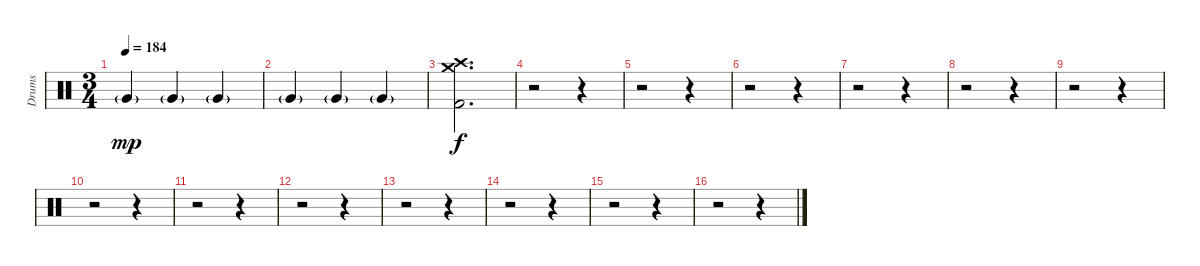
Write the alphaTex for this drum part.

\track ("Drums" "Drums") {instrument percussion}
\staff {score}
\articulation defaults
\ts (3 4)
\tempo 184
\clef neutral
\ks c "Very Low Tom (hit)"{g}.4{dy mp} "Very Low Tom (hit)"{g}.4 "Very Low Tom (hit)"{g}.4
|
"Very Low Tom (hit)"{g}.4 "Very Low Tom (hit)"{g}.4 "Very Low Tom (hit)"{g}.4 |
("Crash medium (hit)" "Crash high (hit)" "Kick (hit) 2").2{d dy f} |
r.2 r.4 |
r.2 r.4 |
r.2 r.4 |
r.2 r.4 |
r.2 r.4 |
r.2 r.4 |
r.2 r.4 |
r.2 r.4 |
r.2 r.4 |
r.2 r.4 |
r.2 r.4 |
r.2 r.4 |
r.2 r.4
